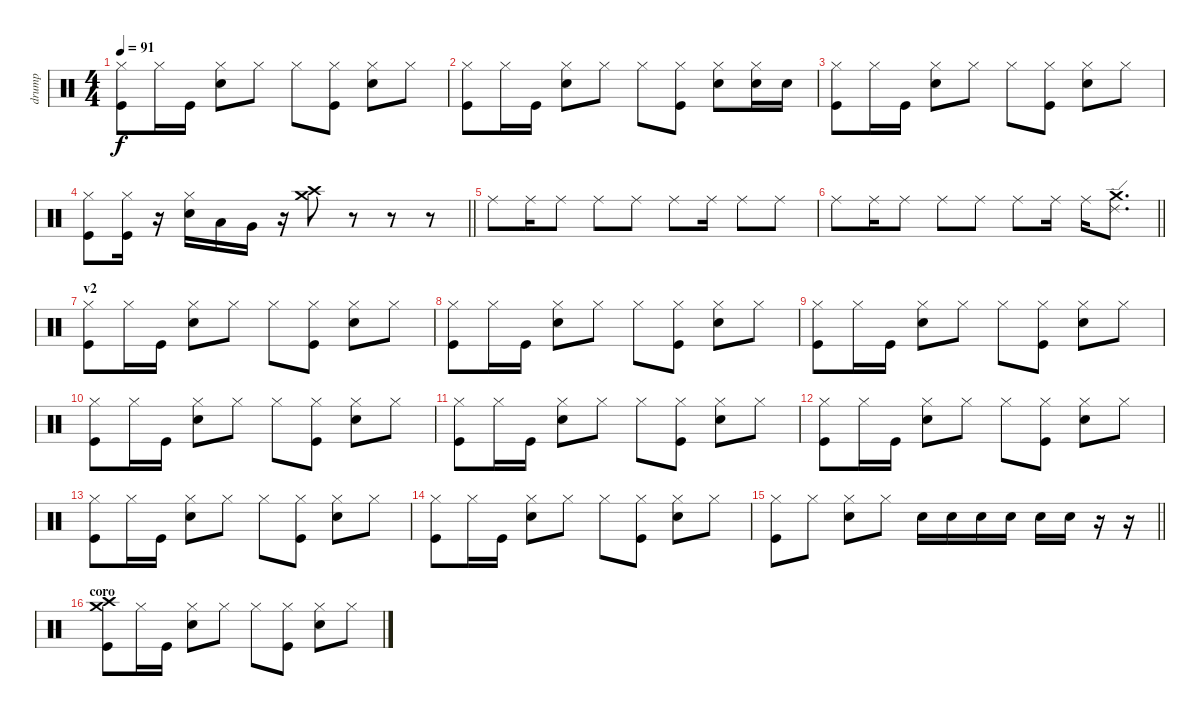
\track ("drump" "drump") {instrument percussion}
\staff {score}
\articulation defaults
\ts (4 4)
\tempo 91
\clef neutral
\ks c
("Kick (hit)" "Hi-Hat (closed)").8{dy f} "Hi-Hat (closed)".16 "Kick (hit)".16 ("Snare (hit) 2" "Hi-Hat (closed)").8 "Hi-Hat (closed)".8 "Hi-Hat (closed)".8 ("Kick (hit)" "Hi-Hat (closed)").8 ("Snare (hit) 2" "Hi-Hat (closed)").8 "Hi-Hat (closed)".8 |
("Kick (hit)" "Hi-Hat (closed)").8 "Hi-Hat (closed)".16 "Kick (hit)".16 ("Snare (hit) 2" "Hi-Hat (closed)").8 "Hi-Hat (closed)".8 "Hi-Hat (closed)".8 ("Kick (hit)" "Hi-Hat (closed)").8 ("Snare (hit) 2" "Hi-Hat (closed)").8 ("Snare (hit) 2" "Hi-Hat (closed)").16 "Snare (hit) 2".16 |
("Kick (hit)" "Hi-Hat (closed)").8 "Hi-Hat (closed)".16 "Kick (hit)".16 ("Snare (hit) 2" "Hi-Hat (closed)").8 "Hi-Hat (closed)".8 "Hi-Hat (closed)".8 ("Kick (hit)" "Hi-Hat (closed)").8 ("Snare (hit) 2" "Hi-Hat (closed)").8 "Hi-Hat (closed)".8 |
\barLineRight lightlight
("Kick (hit)" "Hi-Hat (closed)").8 ("Kick (hit)" "Hi-Hat (closed)").16 r.16 ("Snare (hit) 2" "Hi-Hat (closed)").16 "Low Floor Tom (hit)".16 "Very Low Tom (hit)".16 r.16 ("Crash high (hit)" "Crash medium (hit)").8 r.8 r.8 r.8 |
"Ride (middle)".8 "Ride (middle)".16 "Ride (middle)".8 "Ride (middle)".8 "Ride (middle)".8 "Ride (middle)".8 "Ride (middle)".16 "Ride (middle)".8 "Ride (middle)".8 |
\barLineRight lightlight "Ride (middle)".8 "Ride (middle)".16 "Ride (middle)".8 "Ride (middle)".8 "Ride (middle)".8 "Ride (middle)".8 "Ride (middle)".16 "Ride (middle)".16
("Ride (edge) 2" "Crash medium (hit)").8{d} |
\section ("" "v2")
("Kick (hit)" "Hi-Hat (closed)").8 "Hi-Hat (closed)".16 "Kick (hit)".16 ("Snare (hit) 2" "Hi-Hat (closed)").8 "Hi-Hat (closed)".8 "Hi-Hat (closed)".8 ("Kick (hit)" "Hi-Hat (closed)").8 ("Snare (hit) 2" "Hi-Hat (closed)").8 "Hi-Hat (closed)".8 |
("Kick (hit)" "Hi-Hat (closed)").8 "Hi-Hat (closed)".16 "Kick (hit)".16 ("Snare (hit) 2" "Hi-Hat (closed)").8 "Hi-Hat (closed)".8 "Hi-Hat (closed)".8 ("Kick (hit)" "Hi-Hat (closed)").8 ("Snare (hit) 2" "Hi-Hat (closed)").8 "Hi-Hat (closed)".8 |
("Kick (hit)" "Hi-Hat (closed)").8 "Hi-Hat (closed)".16 "Kick (hit)".16 ("Snare (hit) 2" "Hi-Hat (closed)").8 "Hi-Hat (closed)".8 "Hi-Hat (closed)".8 ("Kick (hit)" "Hi-Hat (closed)").8 ("Snare (hit) 2" "Hi-Hat (closed)").8 "Hi-Hat (closed)".8 |
("Kick (hit)" "Hi-Hat (closed)").8 "Hi-Hat (closed)".16 "Kick (hit)".16 ("Snare (hit) 2" "Hi-Hat (closed)").8 "Hi-Hat (closed)".8 "Hi-Hat (closed)".8 ("Kick (hit)" "Hi-Hat (closed)").8 ("Snare (hit) 2" "Hi-Hat (closed)").8 "Hi-Hat (closed)".8 |
("Kick (hit)" "Hi-Hat (closed)").8 "Hi-Hat (closed)".16 "Kick (hit)".16 ("Snare (hit) 2" "Hi-Hat (closed)").8 "Hi-Hat (closed)".8 "Hi-Hat (closed)".8 ("Kick (hit)" "Hi-Hat (closed)").8 ("Snare (hit) 2" "Hi-Hat (closed)").8 "Hi-Hat (closed)".8 |
("Kick (hit)" "Hi-Hat (closed)").8 "Hi-Hat (closed)".16 "Kick (hit)".16 ("Snare (hit) 2" "Hi-Hat (closed)").8 "Hi-Hat (closed)".8 "Hi-Hat (closed)".8 ("Kick (hit)" "Hi-Hat (closed)").8 ("Snare (hit) 2" "Hi-Hat (closed)").8 "Hi-Hat (closed)".8 |
("Kick (hit)" "Hi-Hat (closed)").8 "Hi-Hat (closed)".16 "Kick (hit)".16 ("Snare (hit) 2" "Hi-Hat (closed)").8 "Hi-Hat (closed)".8 "Hi-Hat (closed)".8 ("Kick (hit)" "Hi-Hat (closed)").8 ("Snare (hit) 2" "Hi-Hat (closed)").8 "Hi-Hat (closed)".8 |
("Kick (hit)" "Hi-Hat (closed)").8 "Hi-Hat (closed)".16 "Kick (hit)".16 ("Snare (hit) 2" "Hi-Hat (closed)").8 "Hi-Hat (closed)".8 "Hi-Hat (closed)".8 ("Kick (hit)" "Hi-Hat (closed)").8 ("Snare (hit) 2" "Hi-Hat (closed)").8 "Hi-Hat (closed)".8 |
\barLineRight lightlight
("Kick (hit)" "Hi-Hat (closed)").8 "Hi-Hat (closed)".8 ("Snare (hit) 2" "Hi-Hat (closed)").8 "Hi-Hat (closed)".8 "Snare (hit) 2".16 "Snare (hit) 2".16 "Snare (hit) 2".16 "Snare (hit) 2".16 "Snare (hit) 2".16 "Snare (hit) 2".16 r.16 r.16 |
\section ("" "coro")
("Kick (hit)" "Crash high (hit)" "Crash medium (hit)").8 "Hi-Hat (closed)".16 "Kick (hit)".16 ("Snare (hit) 2" "Hi-Hat (closed)").8 "Hi-Hat (closed)".8 "Hi-Hat (closed)".8 ("Kick (hit)" "Hi-Hat (closed)").8 ("Snare (hit) 2" "Hi-Hat (closed)").8 "Hi-Hat (closed)".8
